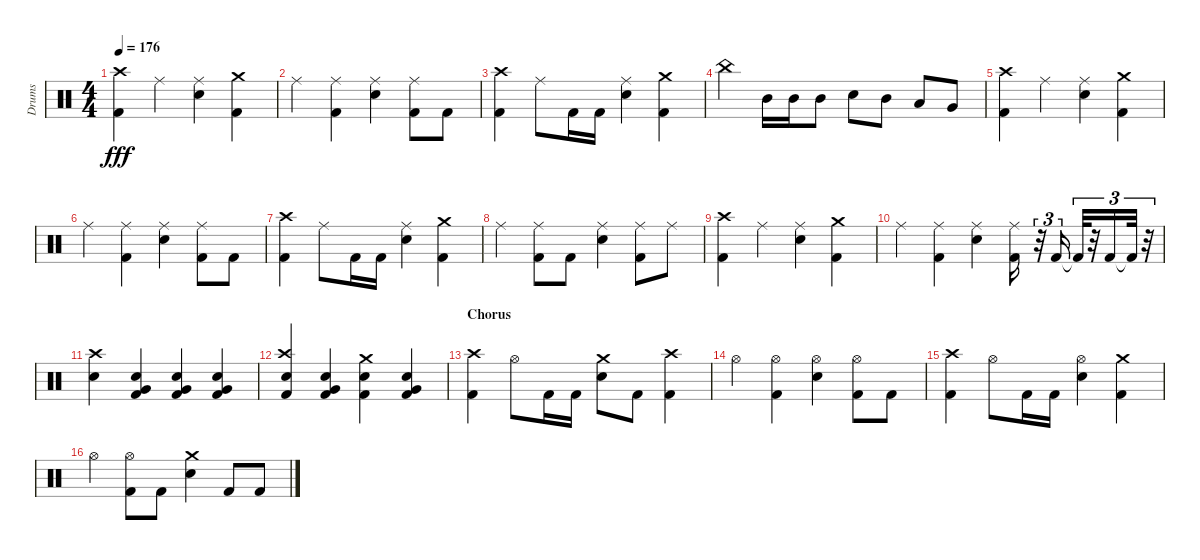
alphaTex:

\track ("Drums" "Drums") {instrument percussion}
\staff {score}
\articulation defaults
\ts (4 4)
\tempo 176
\clef neutral
\ks aminor
("Kick (hit) 2" "Crash high (hit)").4{dy fff} "Ride (middle)".4 ("Ride (middle)" "Snare (hit) 2").4 ("Crash medium (hit)" "Kick (hit) 2").4 |
"Ride (middle)".4 ("Ride (middle)" "Kick (hit) 2").4 ("Ride (middle)" "Snare (hit) 2").4 ("Ride (middle)" "Kick (hit) 2").8 "Kick (hit) 2".8 |
("Crash high (hit)" "Kick (hit) 2").4 "Ride (middle)".8 "Kick (hit) 2".16 "Kick (hit) 2".16 ("Ride (middle)" "Snare (hit) 2").4 ("Kick (hit) 2" "Crash medium (hit)").4 |
"China (hit)".4 "Mid Tom (hit)".16 "Mid Tom (hit)".16 "Mid Tom (hit)".8 "Snare (hit) 2".8 "Mid Tom (hit)".8 "Low Tom (hit)".8 "Very Low Tom (hit)".8 |
("Kick (hit) 2" "Crash high (hit)").4 "Ride (middle)".4 ("Snare (hit) 2" "Ride (middle)").4 ("Crash medium (hit)" "Kick (hit) 2").4 |
"Ride (middle)".4 ("Kick (hit) 2" "Ride (middle)").4 ("Ride (middle)" "Snare (hit) 2").4 ("Kick (hit) 2" "Ride (middle)").8 "Kick (hit) 2".8 |
("Crash high (hit)" "Kick (hit) 2").4 "Ride (middle)".8 "Kick (hit) 2".16 "Kick (hit) 2".16 ("Snare (hit) 2" "Ride (middle)").4 ("Kick (hit) 2" "Crash medium (hit)").4 |
"Ride (middle)".4 ("Kick (hit) 2" "Ride (middle)").8 "Kick (hit) 2".8 ("Snare (hit) 2" "Ride (middle)").4 ("Ride (middle)" "Kick (hit) 2").8 "Ride (middle)".8 |
("Kick (hit) 2" "Crash high (hit)").4 "Ride (middle)".4 ("Snare (hit) 2" "Ride (middle)").4 ("Kick (hit) 2" "Crash medium (hit)").4 |
"Ride (middle)".4 ("Kick (hit) 2" "Ride (middle)").4 ("Snare (hit) 2" "Ride (middle)").4 ("Ride (middle)" "Kick (hit) 2").16 r.32{tu (3 2)} "Kick (hit) 2".16{tu (3 2)} "Kick (hit) 2"{t}.32{tu (3 2)} r.32{tu (3 2)} "Kick (hit) 2".16{tu (3 2)} "Kick (hit) 2"{t}.32{tu (3 2)} r.32{tu (3 2)} |
("Snare (hit) 2" "Crash high (hit)").4 ("Very Low Tom (hit)" "Snare (hit) 2" "Kick (hit) 2").4 ("Snare (hit) 2" "Very Low Tom (hit)" "Kick (hit) 2").4 ("Kick (hit) 2" "Snare (hit) 2" "Very Low Tom (hit)").4 |
("Snare (hit) 2" "Crash high (hit)" "Kick (hit) 2").4 ("Kick (hit) 2" "Very Low Tom (hit)" "Snare (hit) 2").4 ("Snare (hit) 2" "Kick (hit) 2" "Crash medium (hit)").4 ("Snare (hit) 2" "Very Low Tom (hit)" "Kick (hit) 2").4 |
\section ("" "Chorus")
("Crash high (hit)" "Kick (hit) 2").4 "Hi-Hat (open)".8 "Kick (hit) 2".16 "Kick (hit) 2".16 ("Snare (hit) 2" "Crash medium (hit)").8 "Kick (hit) 2".8 ("Kick (hit) 2" "Crash high (hit)").4 |
"Hi-Hat (open)".4 ("Hi-Hat (open)" "Kick (hit) 2").4 ("Snare (hit) 2" "Hi-Hat (open)").4 ("Kick (hit) 2" "Hi-Hat (open)").8 "Kick (hit) 2".8 |
("Crash high (hit)" "Kick (hit) 2").4 "Hi-Hat (open)".8 "Kick (hit) 2".16 "Kick (hit) 2".16 ("Snare (hit) 2" "Hi-Hat (open)").4 ("Kick (hit) 2" "Crash medium (hit)").4 |
"Hi-Hat (open)".4 ("Kick (hit) 2" "Hi-Hat (open)").8 "Kick (hit) 2".8 ("Snare (hit) 2" "Crash medium (hit)").4 "Kick (hit) 2".8 "Kick (hit) 2".8
